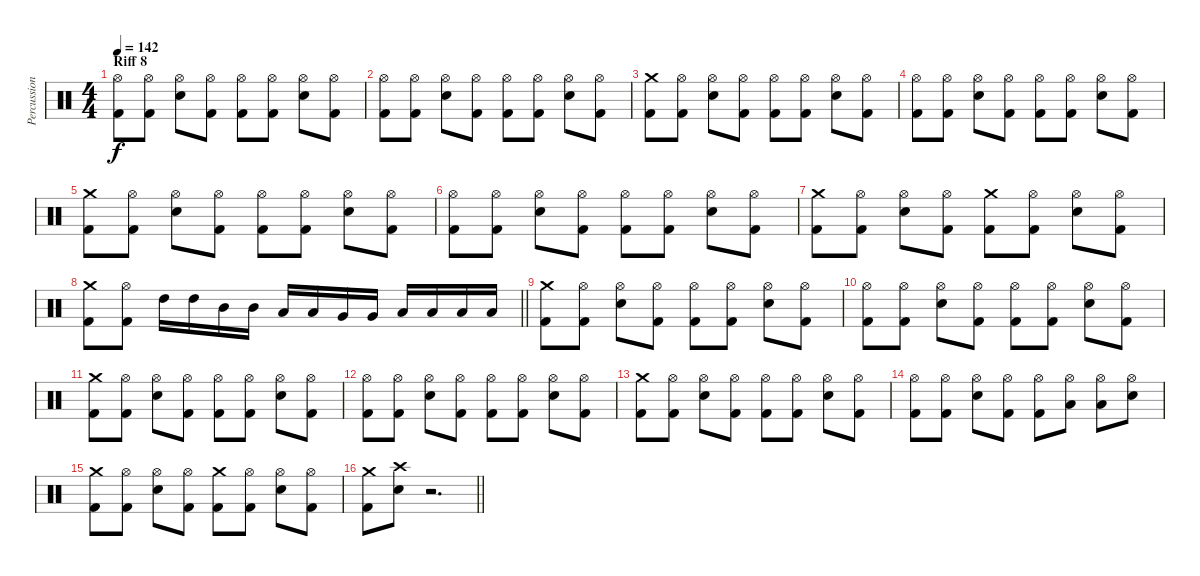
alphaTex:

\track ("Percussions" "Percussion") {instrument percussion}
\staff {score}
\articulation defaults
\ts (4 4)
\section ("" "Riff 8")
\tempo 142
\clef neutral
\ks c
("Hi-Hat (open)" "Kick (hit) 2").8{dy f} ("Hi-Hat (open)" "Kick (hit) 2").8 ("Hi-Hat (open)" "Electric Snare (hit)").8 ("Hi-Hat (open)" "Kick (hit) 2").8 ("Hi-Hat (open)" "Kick (hit) 2").8 ("Hi-Hat (open)" "Kick (hit) 2").8 ("Hi-Hat (open)" "Electric Snare (hit)").8 ("Hi-Hat (open)" "Kick (hit) 2").8 |
("Hi-Hat (open)" "Kick (hit) 2").8 ("Hi-Hat (open)" "Kick (hit) 2").8 ("Hi-Hat (open)" "Electric Snare (hit)").8 ("Hi-Hat (open)" "Kick (hit) 2").8 ("Hi-Hat (open)" "Kick (hit) 2").8 ("Hi-Hat (open)" "Kick (hit) 2").8 ("Hi-Hat (open)" "Electric Snare (hit)").8 ("Hi-Hat (open)" "Kick (hit) 2").8 |
("Crash medium (hit)" "Kick (hit) 2").8 ("Hi-Hat (open)" "Kick (hit) 2").8 ("Hi-Hat (open)" "Electric Snare (hit)").8 ("Hi-Hat (open)" "Kick (hit) 2").8 ("Hi-Hat (open)" "Kick (hit) 2").8 ("Hi-Hat (open)" "Kick (hit) 2").8 ("Hi-Hat (open)" "Electric Snare (hit)").8 ("Hi-Hat (open)" "Kick (hit) 2").8 |
("Hi-Hat (open)" "Kick (hit) 2").8 ("Hi-Hat (open)" "Kick (hit) 2").8 ("Hi-Hat (open)" "Electric Snare (hit)").8 ("Hi-Hat (open)" "Kick (hit) 2").8 ("Hi-Hat (open)" "Kick (hit) 2").8 ("Hi-Hat (open)" "Kick (hit) 2").8 ("Hi-Hat (open)" "Electric Snare (hit)").8 ("Hi-Hat (open)" "Kick (hit) 2").8 |
("Crash medium (hit)" "Kick (hit) 2").8 ("Hi-Hat (open)" "Kick (hit) 2").8 ("Hi-Hat (open)" "Electric Snare (hit)").8 ("Hi-Hat (open)" "Kick (hit) 2").8 ("Hi-Hat (open)" "Kick (hit) 2").8 ("Hi-Hat (open)" "Kick (hit) 2").8 ("Hi-Hat (open)" "Electric Snare (hit)").8 ("Hi-Hat (open)" "Kick (hit) 2").8 |
("Hi-Hat (open)" "Kick (hit) 2").8 ("Hi-Hat (open)" "Kick (hit) 2").8 ("Hi-Hat (open)" "Electric Snare (hit)").8 ("Hi-Hat (open)" "Kick (hit) 2").8 ("Hi-Hat (open)" "Kick (hit) 2").8 ("Hi-Hat (open)" "Kick (hit) 2").8 ("Hi-Hat (open)" "Electric Snare (hit)").8 ("Hi-Hat (open)" "Kick (hit) 2").8 |
("Crash medium (hit)" "Kick (hit) 2").8 ("Hi-Hat (open)" "Kick (hit) 2").8 ("Hi-Hat (open)" "Electric Snare (hit)").8 ("Hi-Hat (open)" "Kick (hit) 2").8 ("Crash medium (hit)" "Kick (hit) 2").8 ("Hi-Hat (open)" "Kick (hit) 2").8 ("Hi-Hat (open)" "Electric Snare (hit)").8 ("Hi-Hat (open)" "Kick (hit) 2").8 |
\barLineRight lightlight
("Crash medium (hit)" "Kick (hit) 2").8 ("Hi-Hat (open)" "Kick (hit) 2").8 "High Tom (hit)".16 "High Tom (hit)".16 "Mid Tom (hit)".16 "Mid Tom (hit)".16 "Low Tom (hit)".16 "Low Tom (hit)".16 "Very Low Tom (hit)".16 "Very Low Tom (hit)".16 "Low Floor Tom (hit)".16 "Low Floor Tom (hit)".16 "Low Floor Tom (hit)".16 "Low Floor Tom (hit)".16 |
("Crash medium (hit)" "Kick (hit) 2").8 ("Hi-Hat (open)" "Kick (hit) 2").8 ("Hi-Hat (open)" "Electric Snare (hit)").8 ("Hi-Hat (open)" "Kick (hit) 2").8 ("Hi-Hat (open)" "Kick (hit) 2").8 ("Hi-Hat (open)" "Kick (hit) 2").8 ("Hi-Hat (open)" "Electric Snare (hit)").8 ("Hi-Hat (open)" "Kick (hit) 2").8 |
("Hi-Hat (open)" "Kick (hit) 2").8 ("Hi-Hat (open)" "Kick (hit) 2").8 ("Hi-Hat (open)" "Electric Snare (hit)").8 ("Hi-Hat (open)" "Kick (hit) 2").8 ("Hi-Hat (open)" "Kick (hit) 2").8 ("Hi-Hat (open)" "Kick (hit) 2").8 ("Hi-Hat (open)" "Electric Snare (hit)").8 ("Hi-Hat (open)" "Kick (hit) 2").8 |
("Crash medium (hit)" "Kick (hit) 2").8 ("Hi-Hat (open)" "Kick (hit) 2").8 ("Hi-Hat (open)" "Electric Snare (hit)").8 ("Hi-Hat (open)" "Kick (hit) 2").8 ("Hi-Hat (open)" "Kick (hit) 2").8 ("Hi-Hat (open)" "Kick (hit) 2").8 ("Hi-Hat (open)" "Electric Snare (hit)").8 ("Hi-Hat (open)" "Kick (hit) 2").8 |
("Hi-Hat (open)" "Kick (hit) 2").8 ("Hi-Hat (open)" "Kick (hit) 2").8 ("Hi-Hat (open)" "Electric Snare (hit)").8 ("Hi-Hat (open)" "Kick (hit) 2").8 ("Hi-Hat (open)" "Kick (hit) 2").8 ("Hi-Hat (open)" "Kick (hit) 2").8 ("Hi-Hat (open)" "Electric Snare (hit)").8 ("Hi-Hat (open)" "Kick (hit) 2").8 |
("Crash medium (hit)" "Kick (hit) 2").8 ("Hi-Hat (open)" "Kick (hit) 2").8 ("Hi-Hat (open)" "Electric Snare (hit)").8 ("Hi-Hat (open)" "Kick (hit) 2").8 ("Hi-Hat (open)" "Kick (hit) 2").8 ("Hi-Hat (open)" "Kick (hit) 2").8 ("Hi-Hat (open)" "Electric Snare (hit)").8 ("Hi-Hat (open)" "Kick (hit) 2").8 |
("Hi-Hat (open)" "Kick (hit) 2").8 ("Hi-Hat (open)" "Kick (hit) 2").8 ("Hi-Hat (open)" "Electric Snare (hit)").8 ("Hi-Hat (open)" "Kick (hit) 2").8 ("Hi-Hat (open)" "Kick (hit) 2").8 ("Hi-Hat (open)" "Low Floor Tom (hit)").8 ("Hi-Hat (open)" "Low Floor Tom (hit)").8 ("Hi-Hat (open)" "Electric Snare (hit)").8 |
("Crash medium (hit)" "Kick (hit) 2").8 ("Hi-Hat (open)" "Kick (hit) 2").8 ("Hi-Hat (open)" "Electric Snare (hit)").8 ("Hi-Hat (open)" "Kick (hit) 2").8 ("Crash medium (hit)" "Kick (hit) 2").8 ("Hi-Hat (open)" "Kick (hit) 2").8 ("Hi-Hat (open)" "Electric Snare (hit)").8 ("Hi-Hat (open)" "Kick (hit) 2").8 |
\barLineRight lightlight
("Crash medium (hit)" "Kick (hit) 2").8 ("Crash high (hit)" "Electric Snare (hit)").8 r.2{d}
